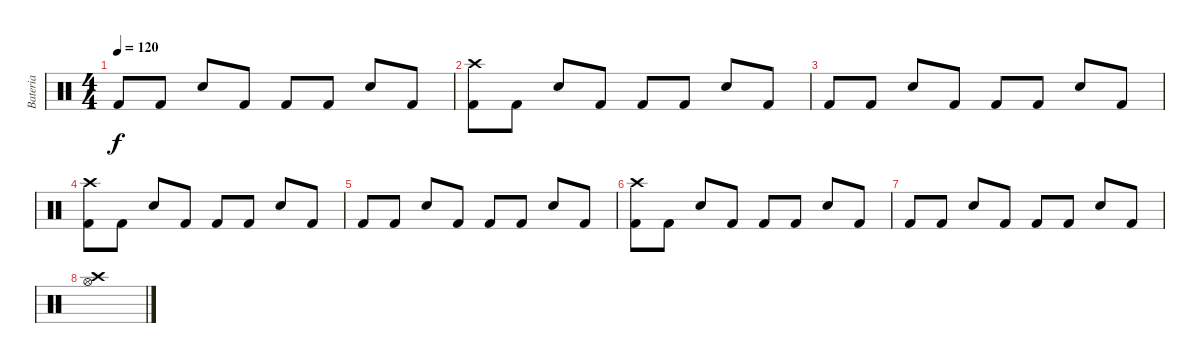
\track ("Bateria" "Bateria") {instrument percussion}
\staff {score}
\articulation defaults
\ts (4 4)
\tempo 120
\clef neutral
\ks c "Kick (hit) 2".8{dy f} "Kick (hit) 2".8 "Snare (hit) 2".8 "Kick (hit) 2".8 "Kick (hit) 2".8 "Kick (hit) 2".8 "Snare (hit) 2".8 "Kick (hit) 2".8
|
("Kick (hit) 2" "Crash high (hit)").8 "Kick (hit) 2".8 "Snare (hit) 2".8 "Kick (hit) 2".8 "Kick (hit) 2".8 "Kick (hit) 2".8 "Snare (hit) 2".8 "Kick (hit) 2".8 |
"Kick (hit) 2".8 "Kick (hit) 2".8 "Snare (hit) 2".8 "Kick (hit) 2".8 "Kick (hit) 2".8 "Kick (hit) 2".8 "Snare (hit) 2".8 "Kick (hit) 2".8 |
("Kick (hit) 2" "Crash high (hit)").8 "Kick (hit) 2".8 "Snare (hit) 2".8 "Kick (hit) 2".8 "Kick (hit) 2".8 "Kick (hit) 2".8 "Snare (hit) 2".8 "Kick (hit) 2".8 |
"Kick (hit) 2".8 "Kick (hit) 2".8 "Snare (hit) 2".8 "Kick (hit) 2".8 "Kick (hit) 2".8 "Kick (hit) 2".8 "Snare (hit) 2".8 "Kick (hit) 2".8 |
("Kick (hit) 2" "Crash high (hit)").8 "Kick (hit) 2".8 "Snare (hit) 2".8 "Kick (hit) 2".8 "Kick (hit) 2".8 "Kick (hit) 2".8 "Snare (hit) 2".8 "Kick (hit) 2".8 |
"Kick (hit) 2".8 "Kick (hit) 2".8 "Snare (hit) 2".8 "Kick (hit) 2".8 "Kick (hit) 2".8 "Kick (hit) 2".8 "Snare (hit) 2".8 "Kick (hit) 2".8 |
("Hi-Hat (open)" "Crash high (hit)").1
